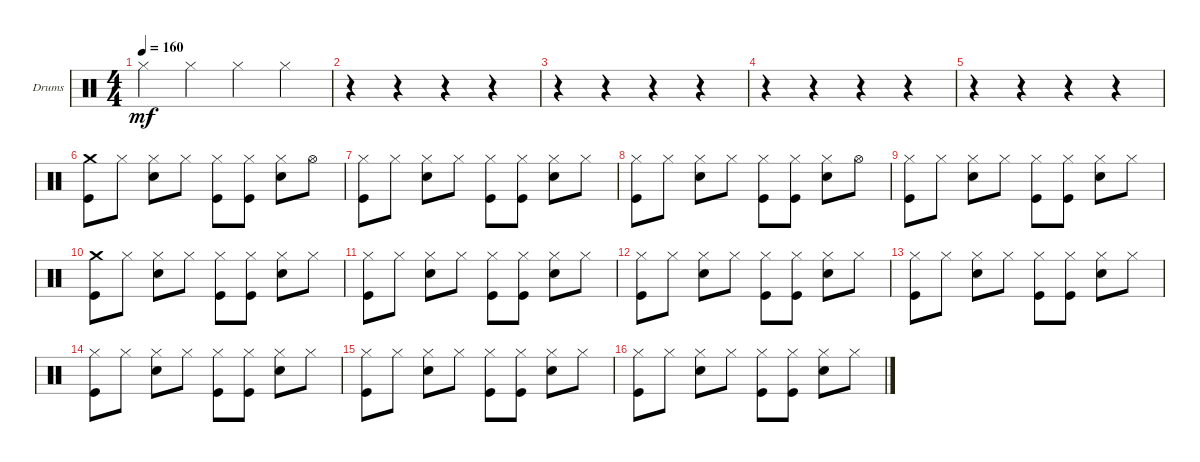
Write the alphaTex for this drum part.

\defaultSystemsLayout 4
\bracketExtendMode groupsimilarinstruments
\firstSystemTrackNameOrientation horizontal
\otherSystemsTrackNameOrientation horizontal
\track ("Drumkit" "Drums") {instrument percussion}
\staff {score}
\articulation defaults
\ts (4 4)
\tempo 160
\clef neutral
\ks c "Hi-Hat (closed)".4{dy mf} "Hi-Hat (closed)".4 "Hi-Hat (closed)".4 "Hi-Hat (closed)".4
|
r.4 r.4 r.4 r.4 |
r.4 r.4 r.4 r.4 |
r.4 r.4 r.4 r.4 |
r.4 r.4 r.4 r.4 |
("Kick (hit)" "Crash medium (hit)").8 "Hi-Hat (closed)".8 ("Snare (hit) 2" "Hi-Hat (closed)").8 "Hi-Hat (closed)".8 ("Hi-Hat (closed)" "Kick (hit)").8 ("Kick (hit)" "Hi-Hat (closed)").8 ("Snare (hit) 2" "Hi-Hat (closed)").8 "Hi-Hat (open)".8 |
("Kick (hit)" "Hi-Hat (closed)").8 "Hi-Hat (closed)".8 ("Snare (hit) 2" "Hi-Hat (closed)").8 "Hi-Hat (closed)".8 ("Hi-Hat (closed)" "Kick (hit)").8 ("Kick (hit)" "Hi-Hat (closed)").8 ("Snare (hit) 2" "Hi-Hat (closed)").8 "Hi-Hat (closed)".8 |
("Kick (hit)" "Hi-Hat (closed)").8 "Hi-Hat (closed)".8 ("Snare (hit) 2" "Hi-Hat (closed)").8 "Hi-Hat (closed)".8 ("Hi-Hat (closed)" "Kick (hit)").8 ("Kick (hit)" "Hi-Hat (closed)").8 ("Snare (hit) 2" "Hi-Hat (closed)").8 "Hi-Hat (open)".8 |
("Kick (hit)" "Hi-Hat (closed)").8 "Hi-Hat (closed)".8 ("Snare (hit) 2" "Hi-Hat (closed)").8 "Hi-Hat (closed)".8 ("Hi-Hat (closed)" "Kick (hit)").8 ("Kick (hit)" "Hi-Hat (closed)").8 ("Snare (hit) 2" "Hi-Hat (closed)").8 "Hi-Hat (closed)".8 |
("Kick (hit)" "Crash medium (hit)").8 "Hi-Hat (closed)".8 ("Snare (hit) 2" "Hi-Hat (closed)").8 "Hi-Hat (closed)".8 ("Hi-Hat (closed)" "Kick (hit)").8 ("Kick (hit)" "Hi-Hat (closed)").8 ("Snare (hit) 2" "Hi-Hat (closed)").8 "Hi-Hat (closed)".8 |
("Kick (hit)" "Hi-Hat (closed)").8 "Hi-Hat (closed)".8 ("Snare (hit) 2" "Hi-Hat (closed)").8 "Hi-Hat (closed)".8 ("Hi-Hat (closed)" "Kick (hit)").8 ("Kick (hit)" "Hi-Hat (closed)").8 ("Snare (hit) 2" "Hi-Hat (closed)").8 "Hi-Hat (closed)".8 |
("Kick (hit)" "Hi-Hat (closed)").8 "Hi-Hat (closed)".8 ("Snare (hit) 2" "Hi-Hat (closed)").8 "Hi-Hat (closed)".8 ("Hi-Hat (closed)" "Kick (hit)").8 ("Kick (hit)" "Hi-Hat (closed)").8 ("Snare (hit) 2" "Hi-Hat (closed)").8 "Hi-Hat (closed)".8 |
("Kick (hit)" "Hi-Hat (closed)").8 "Hi-Hat (closed)".8 ("Snare (hit) 2" "Hi-Hat (closed)").8 "Hi-Hat (closed)".8 ("Hi-Hat (closed)" "Kick (hit)").8 ("Kick (hit)" "Hi-Hat (closed)").8 ("Snare (hit) 2" "Hi-Hat (closed)").8 "Hi-Hat (closed)".8 |
("Kick (hit)" "Hi-Hat (closed)").8 "Hi-Hat (closed)".8 ("Snare (hit) 2" "Hi-Hat (closed)").8 "Hi-Hat (closed)".8 ("Hi-Hat (closed)" "Kick (hit)").8 ("Kick (hit)" "Hi-Hat (closed)").8 ("Snare (hit) 2" "Hi-Hat (closed)").8 "Hi-Hat (closed)".8 |
("Kick (hit)" "Hi-Hat (closed)").8 "Hi-Hat (closed)".8 ("Snare (hit) 2" "Hi-Hat (closed)").8 "Hi-Hat (closed)".8 ("Hi-Hat (closed)" "Kick (hit)").8 ("Kick (hit)" "Hi-Hat (closed)").8 ("Snare (hit) 2" "Hi-Hat (closed)").8 "Hi-Hat (closed)".8 |
("Kick (hit)" "Hi-Hat (closed)").8 "Hi-Hat (closed)".8 ("Snare (hit) 2" "Hi-Hat (closed)").8 "Hi-Hat (closed)".8 ("Hi-Hat (closed)" "Kick (hit)").8 ("Kick (hit)" "Hi-Hat (closed)").8 ("Snare (hit) 2" "Hi-Hat (closed)").8 "Hi-Hat (closed)".8
